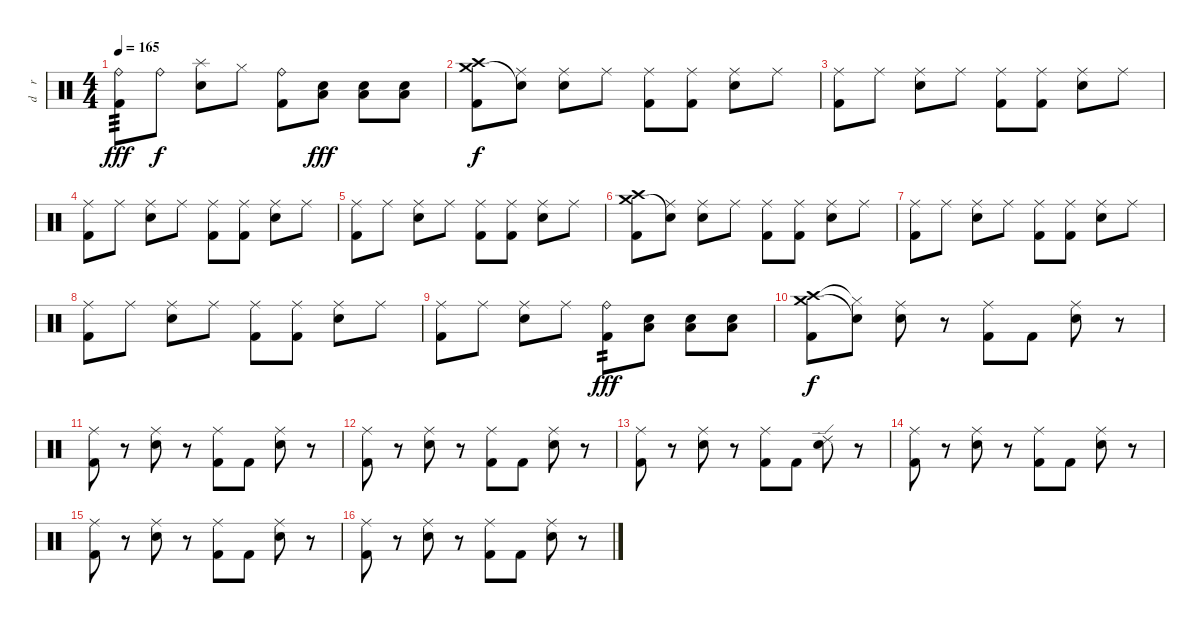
\track ("d    r    u    m    s" "d    r    ") {instrument percussion}
\staff {score}
\articulation defaults
\ts (4 4)
\tempo 165
\clef neutral
\ks c
("Ride (bell)" "Kick (hit) 2").8{tp 3 dy fff} "Ride (bell)".8{dy f} ("Splash (hit)" "Electric Snare (hit)").8 "Hi-Hat (closed)".8 ("Ride (bell)" "Kick (hit) 2").8 ("Low Floor Tom (hit)" "Electric Snare (hit)").8{dy fff} ("Low Floor Tom (hit)" "Electric Snare (hit)").8 ("Low Floor Tom (hit)" "Electric Snare (hit)").8 |
("Crash high (hit)" "Crash medium (hit)" "Kick (hit) 2").8{dy f} ("Ride (middle)" "Snare (hit)"{t}).8 ("Ride (middle)" "Electric Snare (hit)").8 "Ride (middle)".8 ("Ride (middle)" "Kick (hit) 2").8 ("Ride (middle)" "Kick (hit) 2").8 ("Ride (middle)" "Electric Snare (hit)").8 "Ride (middle)".8 |
("Ride (middle)" "Kick (hit) 2").8 "Ride (middle)".8 ("Ride (middle)" "Electric Snare (hit)").8 "Ride (middle)".8 ("Ride (middle)" "Kick (hit) 2").8 ("Ride (middle)" "Kick (hit) 2").8 ("Ride (middle)" "Electric Snare (hit)").8 "Ride (middle)".8 |
("Ride (middle)" "Kick (hit) 2").8 "Ride (middle)".8 ("Ride (middle)" "Electric Snare (hit)").8 "Ride (middle)".8 ("Ride (middle)" "Kick (hit) 2").8 ("Ride (middle)" "Kick (hit) 2").8 ("Ride (middle)" "Electric Snare (hit)").8 "Ride (middle)".8 |
("Ride (middle)" "Kick (hit) 2").8 "Ride (middle)".8 ("Ride (middle)" "Electric Snare (hit)").8 "Ride (middle)".8 ("Ride (middle)" "Kick (hit) 2").8 ("Ride (middle)" "Kick (hit) 2").8 ("Ride (middle)" "Electric Snare (hit)").8 "Ride (middle)".8 |
("Crash high (hit)" "Crash medium (hit)" "Kick (hit) 2").8 ("Ride (middle)" "Snare (hit)"{t}).8 ("Ride (middle)" "Electric Snare (hit)").8 "Ride (middle)".8 ("Ride (middle)" "Kick (hit) 2").8 ("Ride (middle)" "Kick (hit) 2").8 ("Ride (middle)" "Electric Snare (hit)").8 "Ride (middle)".8 |
("Ride (middle)" "Kick (hit) 2").8 "Ride (middle)".8 ("Ride (middle)" "Electric Snare (hit)").8 "Ride (middle)".8 ("Ride (middle)" "Kick (hit) 2").8 ("Ride (middle)" "Kick (hit) 2").8 ("Ride (middle)" "Electric Snare (hit)").8 "Ride (middle)".8 |
("Ride (middle)" "Kick (hit) 2").8 "Ride (middle)".8 ("Ride (middle)" "Electric Snare (hit)").8 "Ride (middle)".8 ("Ride (middle)" "Kick (hit) 2").8 ("Ride (middle)" "Kick (hit) 2").8 ("Ride (middle)" "Electric Snare (hit)").8 "Ride (middle)".8 |
("Ride (middle)" "Kick (hit) 2").8 "Ride (middle)".8 ("Ride (middle)" "Electric Snare (hit)").8 "Ride (middle)".8 ("Ride (bell)" "Kick (hit) 2").8{tp 2 dy fff} ("Low Floor Tom (hit)" "Electric Snare (hit)").8 ("Low Floor Tom (hit)" "Electric Snare (hit)").8 ("Low Floor Tom (hit)" "Electric Snare (hit)").8 |
("Crash high (hit)" "Crash medium (hit)" "Kick (hit) 2").8{dy f} ("Hi-Hat (closed)"{t} "Snare (hit)"{t}).8 ("Ride (middle)" "Electric Snare (hit)").8 r.8 ("Ride (middle)" "Kick (hit) 2").8 "Kick (hit) 2".8 ("Ride (middle)" "Electric Snare (hit)").8 r.8 |
("Ride (middle)" "Kick (hit) 2").8 r.8 ("Ride (middle)" "Electric Snare (hit)").8 r.8 ("Ride (middle)" "Kick (hit) 2").8 "Kick (hit) 2".8 ("Ride (middle)" "Electric Snare (hit)").8 r.8 |
("Ride (middle)" "Kick (hit) 2").8 r.8 ("Ride (middle)" "Electric Snare (hit)").8 r.8 ("Ride (middle)" "Kick (hit) 2").8 "Kick (hit) 2".8 ("Ride (middle)" "Electric Snare (hit)").8 r.8 |
("Ride (middle)" "Kick (hit) 2").8 r.8 ("Ride (middle)" "Electric Snare (hit)").8 r.8 ("Ride (middle)" "Kick (hit) 2").8 "Kick (hit) 2".8 ("Ride (edge) 2" "Electric Snare (hit)").8 r.8 |
("Ride (middle)" "Kick (hit) 2").8 r.8 ("Ride (middle)" "Electric Snare (hit)").8 r.8 ("Ride (middle)" "Kick (hit) 2").8 "Kick (hit) 2".8 ("Ride (middle)" "Electric Snare (hit)").8 r.8 |
("Ride (middle)" "Kick (hit) 2").8 r.8 ("Ride (middle)" "Electric Snare (hit)").8 r.8 ("Ride (middle)" "Kick (hit) 2").8 "Kick (hit) 2".8 ("Ride (middle)" "Electric Snare (hit)").8 r.8 |
("Ride (middle)" "Kick (hit) 2").8 r.8 ("Ride (middle)" "Electric Snare (hit)").8 r.8 ("Ride (middle)" "Kick (hit) 2").8 "Kick (hit) 2".8 ("Ride (middle)" "Electric Snare (hit)").8 r.8
